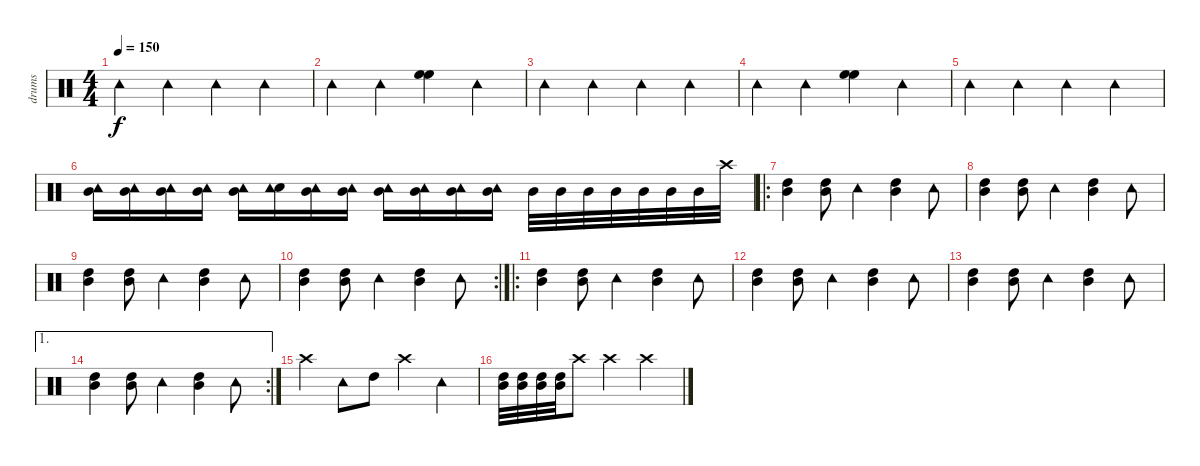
\track ("drums" "drums") {instrument percussion}
\staff {score}
\articulation defaults
\ts (4 4)
\tempo 150
\clef neutral
\ks c "Tambourine (hit)".4{dy f} "Tambourine (hit)".4 "Tambourine (hit)".4 "Tambourine (hit)".4
|
"Tambourine (hit)".4 "Tambourine (hit)".4 ("High Floor Tom (hit)" "High Floor Tom (hit)").4 "Tambourine (hit)".4 |
"Tambourine (hit)".4 "Tambourine (hit)".4 "Tambourine (hit)".4 "Tambourine (hit)".4 |
"Tambourine (hit)".4 "Tambourine (hit)".4 ("High Floor Tom (hit)" "High Floor Tom (hit)").4 "Tambourine (hit)".4 |
"Tambourine (hit)".4 "Tambourine (hit)".4 "Tambourine (hit)".4 "Tambourine (hit)".4 |
("Mid Tom (hit)" "Tambourine (hit)").16 ("Mid Tom (hit)" "Tambourine (hit)").16 ("Mid Tom (hit)" "Tambourine (hit)").16 ("Mid Tom (hit)" "Tambourine (hit)").16 ("Mid Tom (hit)" "Tambourine (hit)").16 ("Snare (hit)" "Tambourine (hit)").16 ("Mid Tom (hit)" "Tambourine (hit)").16 ("Mid Tom (hit)" "Tambourine (hit)").16 ("Mid Tom (hit)" "Tambourine (hit)").16 ("Mid Tom (hit)" "Tambourine (hit)").16 ("Mid Tom (hit)" "Tambourine (hit)").16 ("Mid Tom (hit)" "Tambourine (hit)").16 "Mid Tom (hit)".32 "Mid Tom (hit)".32 "Mid Tom (hit)".32 "Mid Tom (hit)".32 "Mid Tom (hit)".32 "Mid Tom (hit)".32 "Mid Tom (hit)".32 "Crash high (hit)".32 |
\ro
("High Tom (hit)" "Mid Tom (hit)").4 ("High Tom (hit)" "Mid Tom (hit)").8 "Tambourine (hit)".4 ("High Tom (hit)" "Mid Tom (hit)").4 "Tambourine (hit)".8 |
("High Tom (hit)" "Mid Tom (hit)").4 ("High Tom (hit)" "Mid Tom (hit)").8 "Tambourine (hit)".4 ("High Tom (hit)" "Mid Tom (hit)").4 "Tambourine (hit)".8 |
("High Tom (hit)" "Mid Tom (hit)").4 ("High Tom (hit)" "Mid Tom (hit)").8 "Tambourine (hit)".4 ("High Tom (hit)" "Mid Tom (hit)").4 "Tambourine (hit)".8 |
\rc 2
("High Tom (hit)" "Mid Tom (hit)").4 ("High Tom (hit)" "Mid Tom (hit)").8 "Tambourine (hit)".4 ("High Tom (hit)" "Mid Tom (hit)").4 "Tambourine (hit)".8 |
\ro
("High Tom (hit)" "Mid Tom (hit)").4 ("High Tom (hit)" "Mid Tom (hit)").8 "Tambourine (hit)".4 ("High Tom (hit)" "Mid Tom (hit)").4 "Tambourine (hit)".8 |
("High Tom (hit)" "Mid Tom (hit)").4 ("High Tom (hit)" "Mid Tom (hit)").8 "Tambourine (hit)".4 ("High Tom (hit)" "Mid Tom (hit)").4 "Tambourine (hit)".8 |
("High Tom (hit)" "Mid Tom (hit)").4 ("High Tom (hit)" "Mid Tom (hit)").8 "Tambourine (hit)".4 ("High Tom (hit)" "Mid Tom (hit)").4 "Tambourine (hit)".8 |
\ae 1
\rc 2
("High Tom (hit)" "Mid Tom (hit)").4 ("High Tom (hit)" "Mid Tom (hit)").8 "Tambourine (hit)".4 ("High Tom (hit)" "Mid Tom (hit)").4 "Tambourine (hit)".8 |
"Crash high (hit)".4 "Tambourine (hit)".8 "High Tom (hit)".8 "Crash high (hit)".4 "Tambourine (hit)".4 |
("Mid Tom (hit)" "High Tom (hit)").32 ("Mid Tom (hit)" "High Tom (hit)").32 ("Mid Tom (hit)" "High Tom (hit)").32 ("Mid Tom (hit)" "High Tom (hit)").32 "Crash high (hit)".8 "Crash high (hit)".4 "Crash high (hit)".4
